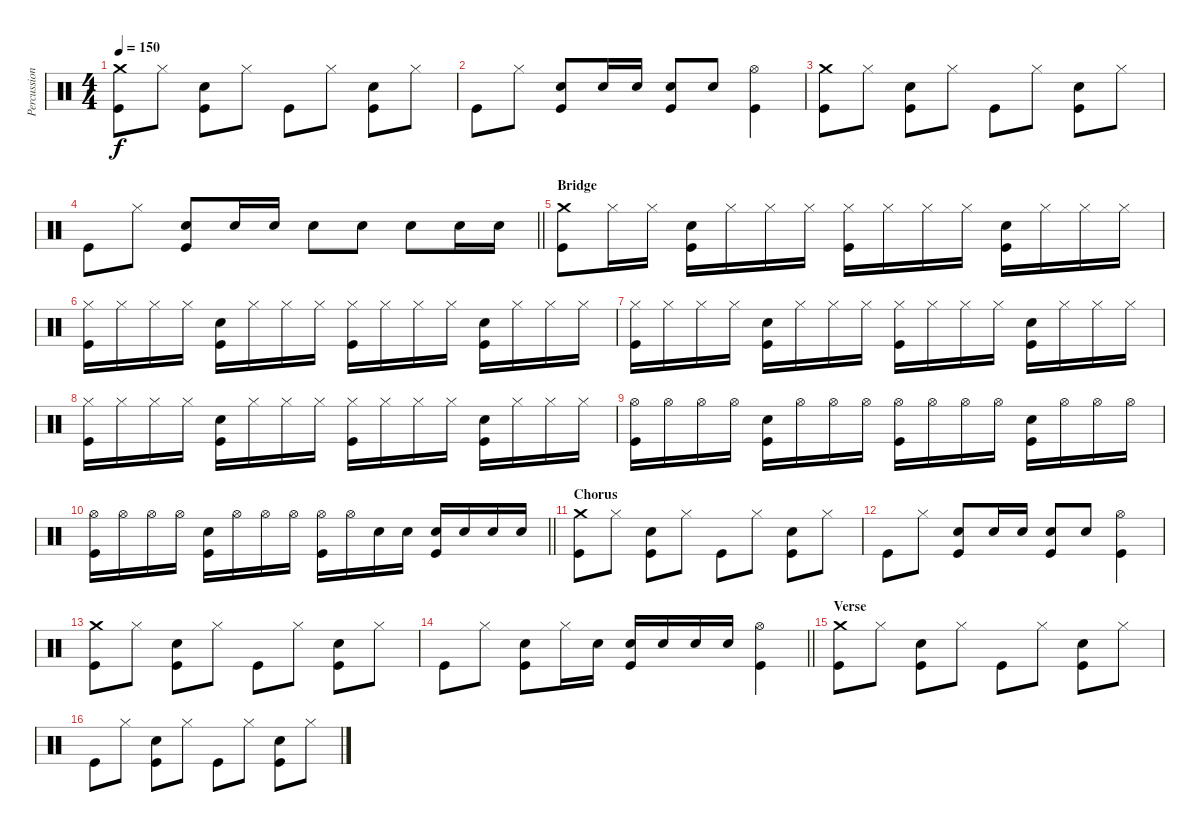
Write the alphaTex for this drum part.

\track ("Percussion" "Percussion") {instrument percussion}
\staff {score}
\articulation defaults
\ts (4 4)
\tempo 150
\clef neutral
\ks c
("Crash medium (hit)" "Kick (hit)").8{dy f} "Hi-Hat (closed)".8 ("Snare (hit) 2" "Kick (hit)").8 "Hi-Hat (closed)".8 "Kick (hit)".8 "Hi-Hat (closed)".8 ("Snare (hit) 2" "Kick (hit)").8 "Hi-Hat (closed)".8 |
"Kick (hit)".8 "Hi-Hat (closed)".8 ("Snare (hit) 2" "Kick (hit)").8 "Snare (hit) 2".16 "Snare (hit) 2".16 ("Snare (hit) 2" "Kick (hit)").8 "Snare (hit) 2".8 ("Hi-Hat (open)" "Kick (hit)").4 |
("Crash medium (hit)" "Kick (hit)").8 "Hi-Hat (closed)".8 ("Snare (hit) 2" "Kick (hit)").8 "Hi-Hat (closed)".8 "Kick (hit)".8 "Hi-Hat (closed)".8 ("Snare (hit) 2" "Kick (hit)").8 "Hi-Hat (closed)".8 |
\barLineRight lightlight "Kick (hit)".8 "Hi-Hat (closed)".8
("Snare (hit) 2" "Kick (hit)").8 "Snare (hit) 2".16 "Snare (hit) 2".16 "Snare (hit) 2".8 "Snare (hit) 2".8 "Snare (hit) 2".8 "Snare (hit) 2".16 "Snare (hit) 2".16 |
\section ("" "Bridge")
("Crash medium (hit)" "Kick (hit)").8 "Hi-Hat (closed)".16 "Hi-Hat (closed)".16 ("Snare (hit) 2" "Kick (hit)").16 "Hi-Hat (closed)".16 "Hi-Hat (closed)".16 "Hi-Hat (closed)".16 ("Hi-Hat (closed)" "Kick (hit)").16 "Hi-Hat (closed)".16 "Hi-Hat (closed)".16 "Hi-Hat (closed)".16 ("Snare (hit) 2" "Kick (hit)").16 "Hi-Hat (closed)".16 "Hi-Hat (closed)".16 "Hi-Hat (closed)".16 |
("Hi-Hat (closed)" "Kick (hit)").16 "Hi-Hat (closed)".16 "Hi-Hat (closed)".16 "Hi-Hat (closed)".16 ("Snare (hit) 2" "Kick (hit)").16 "Hi-Hat (closed)".16 "Hi-Hat (closed)".16 "Hi-Hat (closed)".16 ("Hi-Hat (closed)" "Kick (hit)").16 "Hi-Hat (closed)".16 "Hi-Hat (closed)".16 "Hi-Hat (closed)".16 ("Snare (hit) 2" "Kick (hit)").16 "Hi-Hat (closed)".16 "Hi-Hat (closed)".16 "Hi-Hat (closed)".16 |
("Hi-Hat (closed)" "Kick (hit)").16 "Hi-Hat (closed)".16 "Hi-Hat (closed)".16 "Hi-Hat (closed)".16 ("Snare (hit) 2" "Kick (hit)").16 "Hi-Hat (closed)".16 "Hi-Hat (closed)".16 "Hi-Hat (closed)".16 ("Hi-Hat (closed)" "Kick (hit)").16 "Hi-Hat (closed)".16 "Hi-Hat (closed)".16 "Hi-Hat (closed)".16 ("Snare (hit) 2" "Kick (hit)").16 "Hi-Hat (closed)".16 "Hi-Hat (closed)".16 "Hi-Hat (closed)".16 |
("Hi-Hat (closed)" "Kick (hit)").16 "Hi-Hat (closed)".16 "Hi-Hat (closed)".16 "Hi-Hat (closed)".16 ("Snare (hit) 2" "Kick (hit)").16 "Hi-Hat (closed)".16 "Hi-Hat (closed)".16 "Hi-Hat (closed)".16 ("Hi-Hat (closed)" "Kick (hit)").16 "Hi-Hat (closed)".16 "Hi-Hat (closed)".16 "Hi-Hat (closed)".16 ("Snare (hit) 2" "Kick (hit)").16 "Hi-Hat (closed)".16 "Hi-Hat (closed)".16 "Hi-Hat (closed)".16 |
("Hi-Hat (open)" "Kick (hit)").16 "Hi-Hat (open)".16 "Hi-Hat (open)".16 "Hi-Hat (open)".16 ("Snare (hit) 2" "Kick (hit)").16 "Hi-Hat (open)".16 "Hi-Hat (open)".16 "Hi-Hat (open)".16 ("Hi-Hat (open)" "Kick (hit)").16 "Hi-Hat (open)".16 "Hi-Hat (open)".16 "Hi-Hat (open)".16 ("Snare (hit) 2" "Kick (hit)").16 "Hi-Hat (open)".16 "Hi-Hat (open)".16 "Hi-Hat (open)".16 |
\barLineRight lightlight
("Hi-Hat (open)" "Kick (hit)").16 "Hi-Hat (open)".16 "Hi-Hat (open)".16 "Hi-Hat (open)".16 ("Snare (hit) 2" "Kick (hit)").16 "Hi-Hat (open)".16 "Hi-Hat (open)".16 "Hi-Hat (open)".16 ("Hi-Hat (open)" "Kick (hit)").16 "Hi-Hat (open)".16 "Snare (hit) 2".16 "Snare (hit) 2".16 ("Snare (hit) 2" "Kick (hit)").16 "Snare (hit) 2".16 "Snare (hit) 2".16 "Snare (hit) 2".16 |
\section ("" "Chorus")
("Crash medium (hit)" "Kick (hit)").8 "Hi-Hat (closed)".8 ("Snare (hit) 2" "Kick (hit)").8 "Hi-Hat (closed)".8 "Kick (hit)".8 "Hi-Hat (closed)".8 ("Snare (hit) 2" "Kick (hit)").8 "Hi-Hat (closed)".8 |
"Kick (hit)".8 "Hi-Hat (closed)".8 ("Snare (hit) 2" "Kick (hit)").8 "Snare (hit) 2".16 "Snare (hit) 2".16 ("Snare (hit) 2" "Kick (hit)").8 "Snare (hit) 2".8 ("Hi-Hat (open)" "Kick (hit)").4 |
("Crash medium (hit)" "Kick (hit)").8 "Hi-Hat (closed)".8 ("Snare (hit) 2" "Kick (hit)").8 "Hi-Hat (closed)".8 "Kick (hit)".8 "Hi-Hat (closed)".8 ("Snare (hit) 2" "Kick (hit)").8 "Hi-Hat (closed)".8 |
\barLineRight lightlight "Kick (hit)".8 "Hi-Hat (closed)".8
("Snare (hit) 2" "Kick (hit)").8 "Hi-Hat (closed)".16 "Snare (hit) 2".16 ("Snare (hit) 2" "Kick (hit)").16 "Snare (hit) 2".16 "Snare (hit) 2".16 "Snare (hit) 2".16 ("Hi-Hat (open)" "Kick (hit)").4 |
\section ("" "Verse")
("Crash medium (hit)" "Kick (hit)").8 "Hi-Hat (closed)".8 ("Snare (hit) 2" "Kick (hit)").8 "Hi-Hat (closed)".8 "Kick (hit)".8 "Hi-Hat (closed)".8 ("Snare (hit) 2" "Kick (hit)").8 "Hi-Hat (closed)".8 |
"Kick (hit)".8 "Hi-Hat (closed)".8 ("Snare (hit) 2" "Kick (hit)").8 "Hi-Hat (closed)".8 "Kick (hit)".8 "Hi-Hat (closed)".8 ("Snare (hit) 2" "Kick (hit)").8 "Hi-Hat (closed)".8
